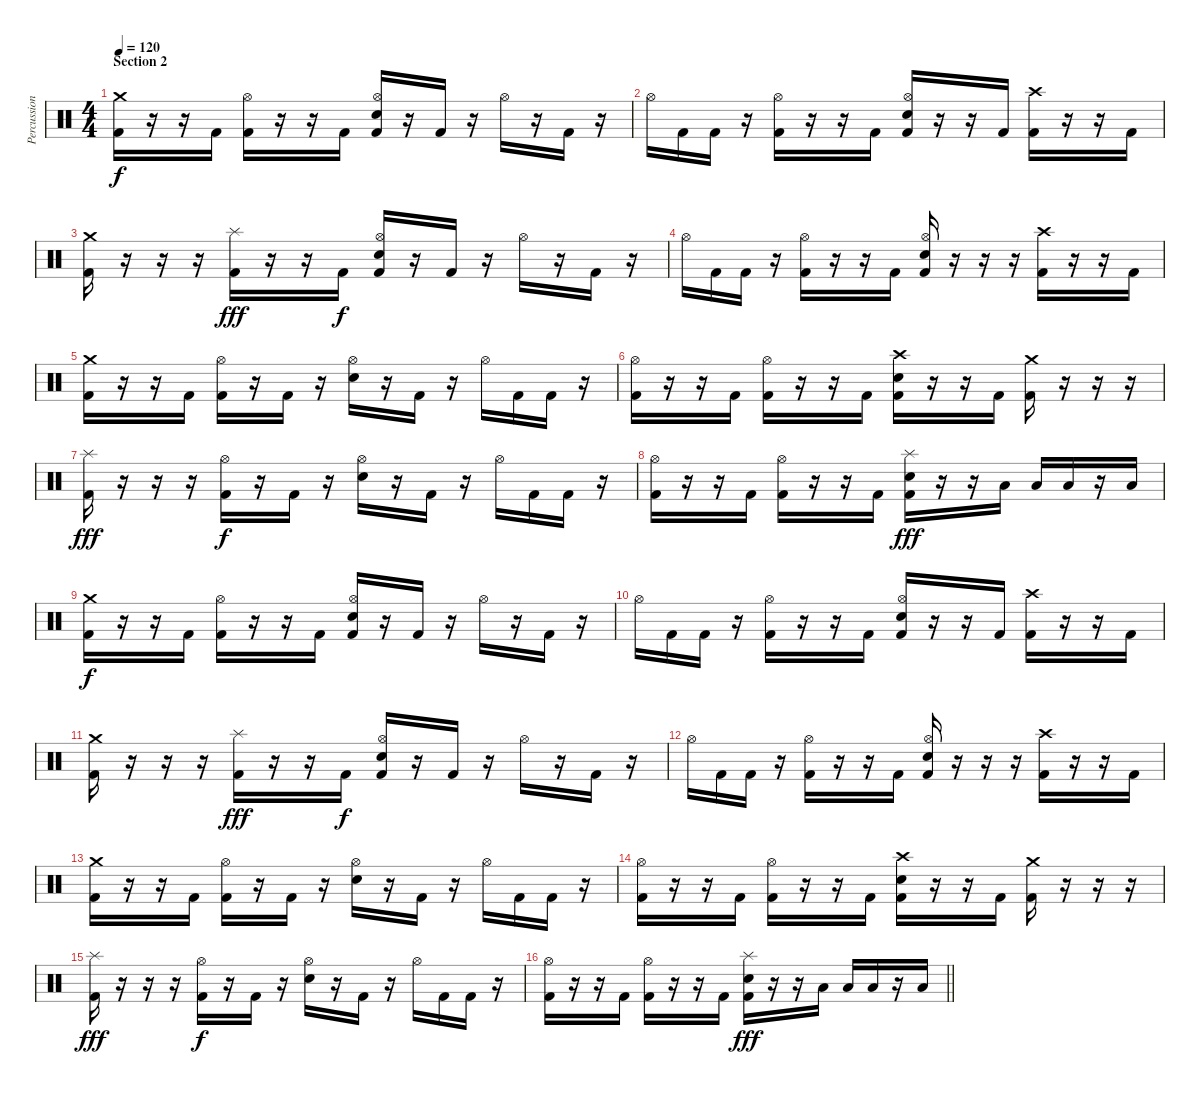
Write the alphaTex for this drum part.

\track ("Percussion" "Percussion") {instrument percussion}
\staff {score}
\articulation defaults
\ts (4 4)
\section ("" "Section 2")
\tempo 120
\clef neutral
\ks c
("Crash medium (hit)" "Kick (hit) 2").16{dy f} r.16 r.16 "Kick (hit) 2".16 ("Hi-Hat (open)" "Kick (hit) 2").16 r.16 r.16 "Kick (hit) 2".16 ("Hi-Hat (open)" "Electric Snare (hit)" "Kick (hit) 2").16 r.16 "Kick (hit) 2".16 r.16 "Hi-Hat (open)".16 r.16 "Kick (hit) 2".16 r.16 |
"Hi-Hat (open)".16 "Kick (hit) 2".16 "Kick (hit) 2".16 r.16 ("Hi-Hat (open)" "Kick (hit) 2").16 r.16 r.16 "Kick (hit) 2".16 ("Hi-Hat (open)" "Electric Snare (hit)" "Kick (hit) 2").16 r.16 r.16 "Kick (hit) 2".16 ("Crash high (hit)" "Kick (hit) 2").16 r.16 r.16 "Kick (hit) 2".16 |
("Crash medium (hit)" "Kick (hit) 2").16 r.16 r.16 r.16 ("Splash (hit)" "Kick (hit) 2").16{dy fff} r.16 r.16 "Kick (hit) 2".16{dy f} ("Hi-Hat (open)" "Electric Snare (hit)" "Kick (hit) 2").16 r.16 "Kick (hit) 2".16 r.16 "Hi-Hat (open)".16 r.16 "Kick (hit) 2".16 r.16 |
"Hi-Hat (open)".16 "Kick (hit) 2".16 "Kick (hit) 2".16 r.16 ("Hi-Hat (open)" "Kick (hit) 2").16 r.16 r.16 "Kick (hit) 2".16 ("Hi-Hat (open)" "Electric Snare (hit)" "Kick (hit) 2").16 r.16 r.16 r.16 ("Crash high (hit)" "Kick (hit) 2").16 r.16 r.16 "Kick (hit) 2".16 |
("Crash medium (hit)" "Kick (hit) 2").16 r.16 r.16 "Kick (hit) 2".16 ("Hi-Hat (open)" "Kick (hit) 2").16 r.16 "Kick (hit) 2".16 r.16 ("Hi-Hat (open)" "Electric Snare (hit)").16 r.16 "Kick (hit) 2".16 r.16 "Hi-Hat (open)".16 "Kick (hit) 2".16 "Kick (hit) 2".16 r.16 |
("Hi-Hat (open)" "Kick (hit) 2").16 r.16 r.16 "Kick (hit) 2".16 ("Hi-Hat (open)" "Kick (hit) 2").16 r.16 r.16 "Kick (hit) 2".16 ("Crash high (hit)" "Electric Snare (hit)" "Kick (hit) 2").16 r.16 r.16 "Kick (hit) 2".16 ("Crash medium (hit)" "Kick (hit) 2").16 r.16 r.16 r.16 |
("Splash (hit)" "Kick (hit) 2").16{dy fff} r.16 r.16 r.16 ("Hi-Hat (open)" "Kick (hit) 2").16{dy f} r.16 "Kick (hit) 2".16 r.16 ("Hi-Hat (open)" "Electric Snare (hit)").16 r.16 "Kick (hit) 2".16 r.16 "Hi-Hat (open)".16 "Kick (hit) 2".16 "Kick (hit) 2".16 r.16 |
("Hi-Hat (open)" "Kick (hit) 2").16 r.16 r.16 "Kick (hit) 2".16 ("Hi-Hat (open)" "Kick (hit) 2").16 r.16 r.16 "Kick (hit) 2".16 ("Splash (hit)" "Electric Snare (hit)" "Kick (hit) 2").16{dy fff} r.16 r.16 "Low Tom (hit)".16 "Low Tom (hit)".16 "Low Tom (hit)".16 r.16 "Low Tom (hit)".16 |
("Crash medium (hit)" "Kick (hit) 2").16{dy f} r.16 r.16 "Kick (hit) 2".16 ("Hi-Hat (open)" "Kick (hit) 2").16 r.16 r.16 "Kick (hit) 2".16 ("Hi-Hat (open)" "Electric Snare (hit)" "Kick (hit) 2").16 r.16 "Kick (hit) 2".16 r.16 "Hi-Hat (open)".16 r.16 "Kick (hit) 2".16 r.16 |
"Hi-Hat (open)".16 "Kick (hit) 2".16 "Kick (hit) 2".16 r.16 ("Hi-Hat (open)" "Kick (hit) 2").16 r.16 r.16 "Kick (hit) 2".16 ("Hi-Hat (open)" "Electric Snare (hit)" "Kick (hit) 2").16 r.16 r.16 "Kick (hit) 2".16 ("Crash high (hit)" "Kick (hit) 2").16 r.16 r.16 "Kick (hit) 2".16 |
("Crash medium (hit)" "Kick (hit) 2").16 r.16 r.16 r.16 ("Splash (hit)" "Kick (hit) 2").16{dy fff} r.16 r.16 "Kick (hit) 2".16{dy f} ("Hi-Hat (open)" "Electric Snare (hit)" "Kick (hit) 2").16 r.16 "Kick (hit) 2".16 r.16 "Hi-Hat (open)".16 r.16 "Kick (hit) 2".16 r.16 |
"Hi-Hat (open)".16 "Kick (hit) 2".16 "Kick (hit) 2".16 r.16 ("Hi-Hat (open)" "Kick (hit) 2").16 r.16 r.16 "Kick (hit) 2".16 ("Hi-Hat (open)" "Electric Snare (hit)" "Kick (hit) 2").16 r.16 r.16 r.16 ("Crash high (hit)" "Kick (hit) 2").16 r.16 r.16 "Kick (hit) 2".16 |
("Crash medium (hit)" "Kick (hit) 2").16 r.16 r.16 "Kick (hit) 2".16 ("Hi-Hat (open)" "Kick (hit) 2").16 r.16 "Kick (hit) 2".16 r.16 ("Hi-Hat (open)" "Electric Snare (hit)").16 r.16 "Kick (hit) 2".16 r.16 "Hi-Hat (open)".16 "Kick (hit) 2".16 "Kick (hit) 2".16 r.16 |
("Hi-Hat (open)" "Kick (hit) 2").16 r.16 r.16 "Kick (hit) 2".16 ("Hi-Hat (open)" "Kick (hit) 2").16 r.16 r.16 "Kick (hit) 2".16 ("Crash high (hit)" "Electric Snare (hit)" "Kick (hit) 2").16 r.16 r.16 "Kick (hit) 2".16 ("Crash medium (hit)" "Kick (hit) 2").16 r.16 r.16 r.16 |
("Splash (hit)" "Kick (hit) 2").16{dy fff} r.16 r.16 r.16 ("Hi-Hat (open)" "Kick (hit) 2").16{dy f} r.16 "Kick (hit) 2".16 r.16 ("Hi-Hat (open)" "Electric Snare (hit)").16 r.16 "Kick (hit) 2".16 r.16 "Hi-Hat (open)".16 "Kick (hit) 2".16 "Kick (hit) 2".16 r.16 |
\barLineRight lightlight
("Hi-Hat (open)" "Kick (hit) 2").16 r.16 r.16 "Kick (hit) 2".16 ("Hi-Hat (open)" "Kick (hit) 2").16 r.16 r.16 "Kick (hit) 2".16 ("Splash (hit)" "Electric Snare (hit)" "Kick (hit) 2").16{dy fff} r.16 r.16 "Low Tom (hit)".16 "Low Tom (hit)".16 "Low Tom (hit)".16 r.16 "Low Tom (hit)".16
